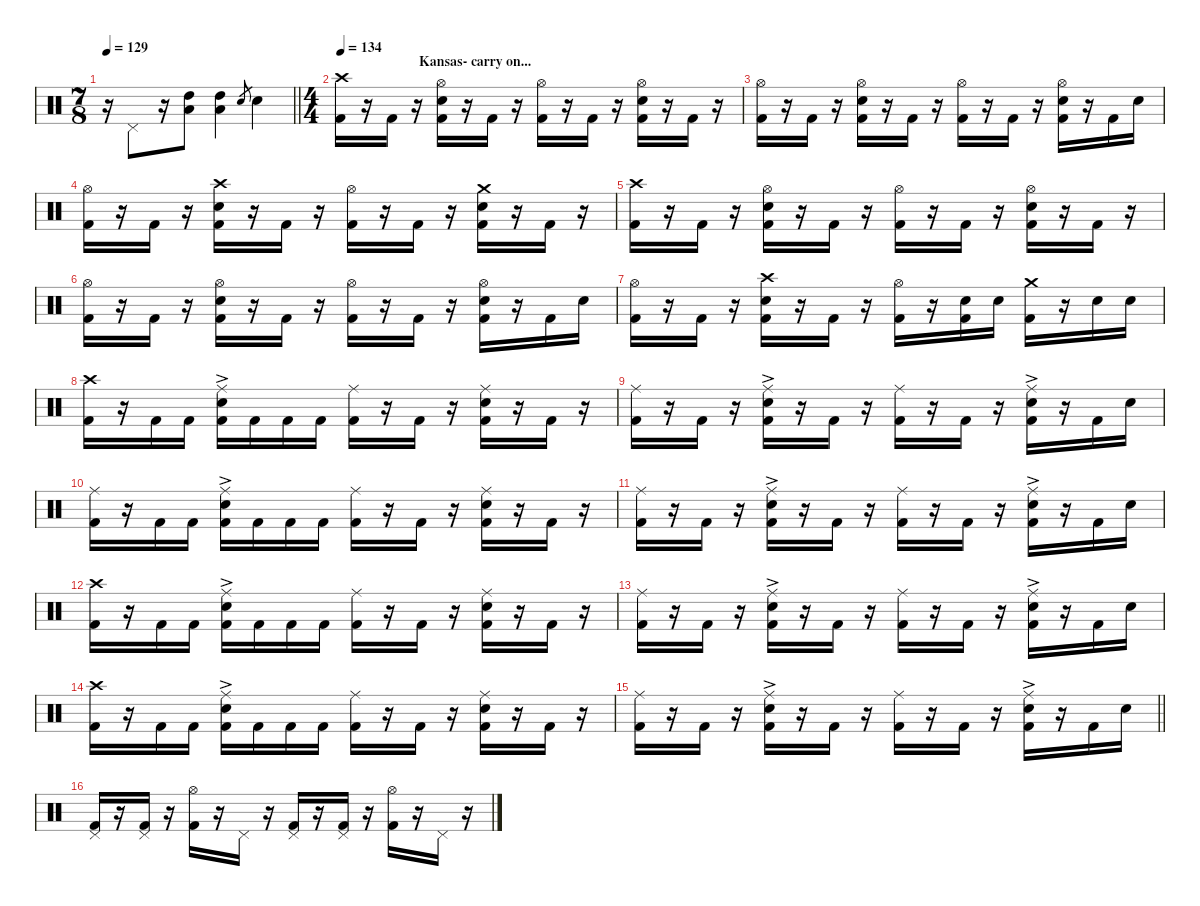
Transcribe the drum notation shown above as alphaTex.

\defaultSystemsLayout 4
\hideDynamics
\bracketExtendMode nobrackets
\singleTrackTrackNamePolicy hidden
\multiTrackTrackNamePolicy hidden
\firstSystemTrackNameMode fullname
\otherSystemsTrackNameOrientation horizontal
\track ("DRUMS" "drm.") {instrument percussion}
\staff {score}
\articulation defaults
\ts (7 8)
\beaming (8 3 2 2)
\tempo 129
\clef neutral
\barLineRight lightlight
\ks c
r.16{dy fff beam Down} "Pedal Hi-Hat (hit)".8{beam Up} r.16{beam Up} ("Low Tom (hit)" "High Tom (hit)").8{dy f beam Up} ("Low Tom (hit)" "High Tom (hit)").4{beam Down} "Electric Snare (hit)".8{gr dy mf beam Up} "Snare (hit) 2".4{dy fff beam Down} |
\ts (4 4)
\beaming (8 2 2 2 2)
\section ("" "                        Kansas- carry on...")
\tempo 134
("Crash high (hit)" "Kick (hit) 2").16{dy ff beam Down} r.16{beam Down} "Kick (hit) 2".16{beam Down} r.16{beam Down} ("Hi-Hat (open)" "Snare (hit) 2" "Kick (hit) 2").16{dy mf beam Down} r.16{beam Down} "Kick (hit) 2".16{dy ff beam Down} r.16{beam Down} ("Hi-Hat (open)" "Kick (hit) 2").16{dy mf beam Down} r.16{beam Down} "Kick (hit) 2".16{dy ff beam Down} r.16{beam Down} ("Hi-Hat (open)" "Snare (hit) 2" "Kick (hit) 2").16{dy mf beam Down} r.16{beam Down} "Kick (hit) 2".16{dy ff beam Down} r.16{beam Down} |
("Hi-Hat (open)" "Kick (hit) 2").16{beam Down} r.16{beam Down} "Kick (hit) 2".16{beam Down} r.16{beam Down} ("Hi-Hat (open)" "Snare (hit) 2" "Kick (hit) 2").16{dy mf beam Down} r.16{beam Down} "Kick (hit) 2".16{dy ff beam Down} r.16{beam Down} ("Hi-Hat (open)" "Kick (hit) 2").16{dy mf beam Down} r.16{beam Down} "Kick (hit) 2".16{dy ff beam Down} r.16{beam Down} ("Hi-Hat (open)" "Snare (hit) 2" "Kick (hit) 2").16{dy mf beam Down} r.16{beam Down} "Kick (hit) 2".16{dy ff beam Down} "Snare (hit) 2".16{dy f beam Down} |
("Hi-Hat (open)" "Kick (hit) 2").16{dy ff beam Down} r.16{beam Down} "Kick (hit) 2".16{beam Down} r.16{beam Down} ("Crash high (hit)" "Snare (hit) 2" "Kick (hit) 2").16{dy mf beam Down} r.16{beam Down} "Kick (hit) 2".16{dy ff beam Down} r.16{beam Down} ("Hi-Hat (open)" "Kick (hit) 2").16{dy mf beam Down} r.16{beam Down} "Kick (hit) 2".16{dy ff beam Down} r.16{beam Down} ("Crash medium (hit)" "Snare (hit) 2" "Kick (hit) 2").16{dy mf beam Down} r.16{beam Down} "Kick (hit) 2".16{dy ff beam Down} r.16{beam Down} |
("Crash high (hit)" "Kick (hit) 2").16{beam Down} r.16{beam Down} "Kick (hit) 2".16{beam Down} r.16{beam Down} ("Hi-Hat (open)" "Snare (hit) 2" "Kick (hit) 2").16{dy mf beam Down} r.16{beam Down} "Kick (hit) 2".16{dy ff beam Down} r.16{beam Down} ("Hi-Hat (open)" "Kick (hit) 2").16{dy mf beam Down} r.16{beam Down} "Kick (hit) 2".16{dy ff beam Down} r.16{beam Down} ("Hi-Hat (open)" "Snare (hit) 2" "Kick (hit) 2").16{dy mf beam Down} r.16{beam Down} "Kick (hit) 2".16{dy ff beam Down} r.16{beam Down} |
("Hi-Hat (open)" "Kick (hit) 2").16{beam Down} r.16{beam Down} "Kick (hit) 2".16{beam Down} r.16{beam Down} ("Hi-Hat (open)" "Snare (hit) 2" "Kick (hit) 2").16{dy mf beam Down} r.16{beam Down} "Kick (hit) 2".16{dy ff beam Down} r.16{beam Down} ("Hi-Hat (open)" "Kick (hit) 2").16{dy mf beam Down} r.16{beam Down} "Kick (hit) 2".16{dy ff beam Down} r.16{beam Down} ("Hi-Hat (open)" "Snare (hit) 2" "Kick (hit) 2").16{dy mf beam Down} r.16{beam Down} "Kick (hit) 2".16{dy ff beam Down} "Snare (hit) 2".16{dy f beam Down} |
("Hi-Hat (open)" "Kick (hit) 2").16{dy ff beam Down} r.16{beam Down} "Kick (hit) 2".16{beam Down} r.16{beam Down} ("Crash high (hit)" "Snare (hit) 2" "Kick (hit) 2").16{dy mf beam Down} r.16{beam Down} "Kick (hit) 2".16{dy ff beam Down} r.16{beam Down} ("Hi-Hat (open)" "Kick (hit) 2").16{dy mf beam Down} r.16{beam Down} ("Snare (hit) 2" "Kick (hit) 2").16{dy f beam Down} "Snare (hit) 2".16{beam Down} ("Crash medium (hit)" "Kick (hit) 2").16{dy mf beam Down} r.16{beam Down} "Snare (hit) 2".16{dy f beam Down} "Snare (hit) 2".16{beam Down} |
("Crash high (hit)" "Kick (hit) 2").16{dy ff beam Down} r.16{beam Down} "Kick (hit) 2".16{beam Down} "Kick (hit) 2".16{dy f beam Down} ("Ride (middle)" "Snare (hit) 2"{ac} "Kick (hit) 2").16{dy mf beam Down} "Kick (hit) 2".16{dy f beam Down} "Kick (hit) 2".16{dy ff beam Down} "Kick (hit) 2".16{dy f beam Down} ("Ride (middle)" "Kick (hit) 2").16{dy ff beam Down} r.16{beam Down} "Kick (hit) 2".16{beam Down} r.16{beam Down} ("Ride (middle)" "Snare (hit) 2" "Kick (hit) 2").16{dy mf beam Down} r.16{beam Down} "Kick (hit) 2".16{dy ff beam Down} r.16{beam Down} |
("Ride (middle)" "Kick (hit) 2").16{beam Down} r.16{beam Down} "Kick (hit) 2".16{beam Down} r.16{beam Down} ("Ride (middle)" "Snare (hit) 2"{ac} "Kick (hit) 2").16{dy mf beam Down} r.16{beam Down} "Kick (hit) 2".16{dy ff beam Down} r.16{beam Down} ("Ride (middle)" "Kick (hit) 2").16{beam Down} r.16{beam Down} "Kick (hit) 2".16{beam Down} r.16{beam Down} ("Ride (middle)" "Snare (hit) 2"{ac} "Kick (hit) 2").16{dy mf beam Down} r.16{beam Down} "Kick (hit) 2".16{dy ff beam Down} "Snare (hit) 2".16{dy f beam Down} |
("Ride (middle)" "Kick (hit) 2").16{dy ff beam Down} r.16{beam Down} "Kick (hit) 2".16{beam Down} "Kick (hit) 2".16{dy f beam Down} ("Ride (middle)" "Snare (hit) 2"{ac} "Kick (hit) 2").16{dy mf beam Down} "Kick (hit) 2".16{dy f beam Down} "Kick (hit) 2".16{dy ff beam Down} "Kick (hit) 2".16{dy f beam Down} ("Ride (middle)" "Kick (hit) 2").16{dy ff beam Down} r.16{beam Down} "Kick (hit) 2".16{beam Down} r.16{beam Down} ("Ride (middle)" "Snare (hit) 2" "Kick (hit) 2").16{dy mf beam Down} r.16{beam Down} "Kick (hit) 2".16{dy ff beam Down} r.16{beam Down} |
("Ride (middle)" "Kick (hit) 2").16{beam Down} r.16{beam Down} "Kick (hit) 2".16{beam Down} r.16{beam Down} ("Ride (middle)" "Snare (hit) 2"{ac} "Kick (hit) 2").16{dy mf beam Down} r.16{beam Down} "Kick (hit) 2".16{dy ff beam Down} r.16{beam Down} ("Ride (middle)" "Kick (hit) 2").16{beam Down} r.16{beam Down} "Kick (hit) 2".16{beam Down} r.16{beam Down} ("Ride (middle)" "Snare (hit) 2"{ac} "Kick (hit) 2").16{dy mf beam Down} r.16{beam Down} "Kick (hit) 2".16{dy ff beam Down} "Snare (hit) 2".16{dy f beam Down} |
("Crash high (hit)" "Kick (hit) 2").16{dy ff beam Down} r.16{beam Down} "Kick (hit) 2".16{beam Down} "Kick (hit) 2".16{dy f beam Down} ("Ride (middle)" "Snare (hit) 2"{ac} "Kick (hit) 2").16{dy mf beam Down} "Kick (hit) 2".16{dy f beam Down} "Kick (hit) 2".16{dy ff beam Down} "Kick (hit) 2".16{dy f beam Down} ("Ride (middle)" "Kick (hit) 2").16{dy ff beam Down} r.16{beam Down} "Kick (hit) 2".16{beam Down} r.16{beam Down} ("Ride (middle)" "Snare (hit) 2" "Kick (hit) 2").16{dy mf beam Down} r.16{beam Down} "Kick (hit) 2".16{dy ff beam Down} r.16{beam Down} |
("Ride (middle)" "Kick (hit) 2").16{beam Down} r.16{beam Down} "Kick (hit) 2".16{beam Down} r.16{beam Down} ("Ride (middle)" "Snare (hit) 2"{ac} "Kick (hit) 2").16{dy mf beam Down} r.16{beam Down} "Kick (hit) 2".16{dy ff beam Down} r.16{beam Down} ("Ride (middle)" "Kick (hit) 2").16{beam Down} r.16{beam Down} "Kick (hit) 2".16{beam Down} r.16{beam Down} ("Ride (middle)" "Snare (hit) 2"{ac} "Kick (hit) 2").16{dy mf beam Down} r.16{beam Down} "Kick (hit) 2".16{dy ff beam Down} "Snare (hit) 2".16{dy f beam Down} |
("Crash high (hit)" "Kick (hit) 2").16{dy ff beam Down} r.16{beam Down} "Kick (hit) 2".16{beam Down} "Kick (hit) 2".16{dy f beam Down} ("Ride (middle)" "Snare (hit) 2"{ac} "Kick (hit) 2").16{dy mf beam Down} "Kick (hit) 2".16{dy f beam Down} "Kick (hit) 2".16{dy ff beam Down} "Kick (hit) 2".16{dy f beam Down} ("Ride (middle)" "Kick (hit) 2").16{dy ff beam Down} r.16{beam Down} "Kick (hit) 2".16{beam Down} r.16{beam Down} ("Ride (middle)" "Snare (hit) 2" "Kick (hit) 2").16{dy mf beam Down} r.16{beam Down} "Kick (hit) 2".16{dy ff beam Down} r.16{beam Down} |
\barLineRight lightlight
("Ride (middle)" "Kick (hit) 2").16{beam Down} r.16{beam Down} "Kick (hit) 2".16{beam Down} r.16{beam Down} ("Ride (middle)" "Snare (hit) 2"{ac} "Kick (hit) 2").16{dy mf beam Down} r.16{beam Down} "Kick (hit) 2".16{dy ff beam Down} r.16{beam Down} ("Ride (middle)" "Kick (hit) 2").16{beam Down} r.16{beam Down} "Kick (hit) 2".16{beam Down} r.16{beam Down} ("Ride (middle)" "Snare (hit) 2"{ac} "Kick (hit) 2").16{dy mf beam Down} r.16{beam Down} "Kick (hit) 2".16{dy ff beam Down} "Snare (hit) 2".16{dy f beam Down} |
("Pedal Hi-Hat (hit)" "Kick (hit) 2").16{dy ff beam Up} r.16{beam Up} ("Pedal Hi-Hat (hit)" "Kick (hit) 2").16{dy mf beam Up} r.16{beam Up} ("Hi-Hat (open)" "Kick (hit) 2").16{dy f beam Down} r.16{beam Down} "Pedal Hi-Hat (hit)".16{dy mf beam Down} r.16{beam Down} ("Pedal Hi-Hat (hit)" "Kick (hit) 2").16{dy ff beam Up} r.16{beam Up} ("Pedal Hi-Hat (hit)" "Kick (hit) 2").16{dy mf beam Up} r.16{beam Up} ("Hi-Hat (open)" "Kick (hit) 2").16{dy f beam Down} r.16{beam Down} "Pedal Hi-Hat (hit)".16{dy mf beam Down} r.16{beam Down}
